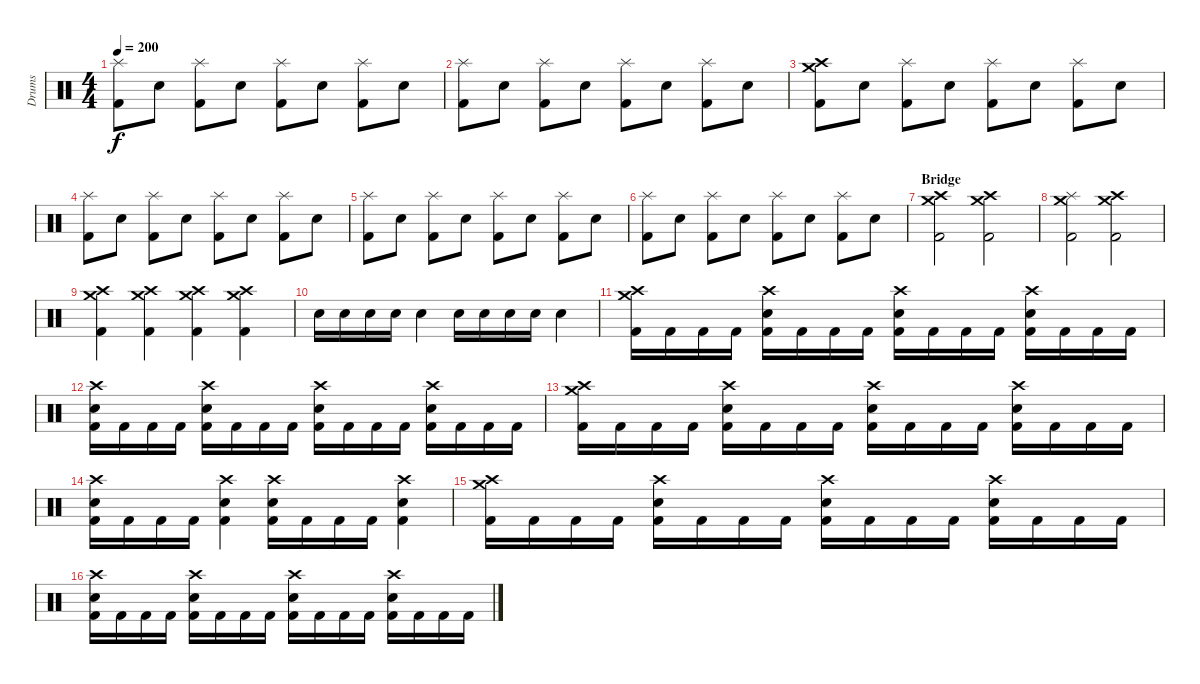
\track ("Drums" "Drums") {instrument percussion}
\staff {score}
\articulation defaults
\ts (4 4)
\tempo 200
\clef neutral
\ks c
("Splash (hit)" "Kick (hit) 2").8{dy f} "Snare (hit) 2".8 ("Splash (hit)" "Kick (hit) 2").8 "Snare (hit) 2".8 ("Splash (hit)" "Kick (hit) 2").8 "Snare (hit) 2".8 ("Splash (hit)" "Kick (hit) 2").8 "Snare (hit) 2".8 |
("Splash (hit)" "Kick (hit) 2").8 "Snare (hit) 2".8 ("Splash (hit)" "Kick (hit) 2").8 "Snare (hit) 2".8 ("Splash (hit)" "Kick (hit) 2").8 "Snare (hit) 2".8 ("Splash (hit)" "Kick (hit) 2").8 "Snare (hit) 2".8 |
("Crash medium (hit)" "Crash high (hit)" "Kick (hit) 2").8 "Snare (hit) 2".8 ("Splash (hit)" "Kick (hit) 2").8 "Snare (hit) 2".8 ("Splash (hit)" "Kick (hit) 2").8 "Snare (hit) 2".8 ("Splash (hit)" "Kick (hit) 2").8 "Snare (hit) 2".8 |
("Splash (hit)" "Kick (hit) 2").8 "Snare (hit) 2".8 ("Splash (hit)" "Kick (hit) 2").8 "Snare (hit) 2".8 ("Splash (hit)" "Kick (hit) 2").8 "Snare (hit) 2".8 ("Splash (hit)" "Kick (hit) 2").8 "Snare (hit) 2".8 |
("Splash (hit)" "Kick (hit) 2").8 "Snare (hit) 2".8 ("Splash (hit)" "Kick (hit) 2").8 "Snare (hit) 2".8 ("Splash (hit)" "Kick (hit) 2").8 "Snare (hit) 2".8 ("Splash (hit)" "Kick (hit) 2").8 "Snare (hit) 2".8 |
("Splash (hit)" "Kick (hit) 2").8 "Snare (hit) 2".8 ("Splash (hit)" "Kick (hit) 2").8 "Snare (hit) 2".8 ("Splash (hit)" "Kick (hit) 2").8 "Snare (hit) 2".8 ("Splash (hit)" "Kick (hit) 2").8 "Snare (hit) 2".8 |
\section ("" "Bridge")
("Crash high (hit)" "Crash medium (hit)" "Kick (hit) 2").2 ("Crash high (hit)" "Crash medium (hit)" "Kick (hit) 2").2 |
("Crash medium (hit)" "Splash (hit)" "Kick (hit) 2").2 ("Crash high (hit)" "Crash medium (hit)" "Kick (hit) 2").2 |
("Crash high (hit)" "Crash medium (hit)" "Kick (hit) 2").4 ("Crash high (hit)" "Crash medium (hit)" "Kick (hit) 2").4 ("Crash high (hit)" "Crash medium (hit)" "Kick (hit) 2").4 ("Crash high (hit)" "Crash medium (hit)" "Kick (hit) 2").4 |
"Snare (hit) 2".16 "Snare (hit) 2".16 "Snare (hit) 2".16 "Snare (hit) 2".16 "Snare (hit) 2".4 "Snare (hit) 2".16 "Snare (hit) 2".16 "Snare (hit) 2".16 "Snare (hit) 2".16 "Snare (hit) 2".4 |
("Crash medium (hit)" "Crash high (hit)" "Kick (hit) 2").16 "Kick (hit) 2".16 "Kick (hit) 2".16 "Kick (hit) 2".16 ("Crash high (hit)" "Snare (hit) 2" "Kick (hit) 2").16 "Kick (hit) 2".16 "Kick (hit) 2".16 "Kick (hit) 2".16 ("Crash high (hit)" "Snare (hit) 2" "Kick (hit) 2").16 "Kick (hit) 2".16 "Kick (hit) 2".16 "Kick (hit) 2".16 ("Crash high (hit)" "Snare (hit) 2" "Kick (hit) 2").16 "Kick (hit) 2".16 "Kick (hit) 2".16 "Kick (hit) 2".16 |
("Crash high (hit)" "Snare (hit) 2" "Kick (hit) 2").16 "Kick (hit) 2".16 "Kick (hit) 2".16 "Kick (hit) 2".16 ("Crash high (hit)" "Snare (hit) 2" "Kick (hit) 2").16 "Kick (hit) 2".16 "Kick (hit) 2".16 "Kick (hit) 2".16 ("Crash high (hit)" "Snare (hit) 2" "Kick (hit) 2").16 "Kick (hit) 2".16 "Kick (hit) 2".16 "Kick (hit) 2".16 ("Crash high (hit)" "Snare (hit) 2" "Kick (hit) 2").16 "Kick (hit) 2".16 "Kick (hit) 2".16 "Kick (hit) 2".16 |
("Crash medium (hit)" "Crash high (hit)" "Kick (hit) 2").16 "Kick (hit) 2".16 "Kick (hit) 2".16 "Kick (hit) 2".16 ("Crash high (hit)" "Snare (hit) 2" "Kick (hit) 2").16 "Kick (hit) 2".16 "Kick (hit) 2".16 "Kick (hit) 2".16 ("Crash high (hit)" "Snare (hit) 2" "Kick (hit) 2").16 "Kick (hit) 2".16 "Kick (hit) 2".16 "Kick (hit) 2".16 ("Crash high (hit)" "Snare (hit) 2" "Kick (hit) 2").16 "Kick (hit) 2".16 "Kick (hit) 2".16 "Kick (hit) 2".16 |
("Crash high (hit)" "Snare (hit) 2" "Kick (hit) 2").16 "Kick (hit) 2".16 "Kick (hit) 2".16 "Kick (hit) 2".16 ("Crash high (hit)" "Snare (hit) 2" "Kick (hit) 2").4 ("Crash high (hit)" "Snare (hit) 2" "Kick (hit) 2").16 "Kick (hit) 2".16 "Kick (hit) 2".16 "Kick (hit) 2".16 ("Crash high (hit)" "Snare (hit) 2" "Kick (hit) 2").4 |
("Crash medium (hit)" "Crash high (hit)" "Kick (hit) 2").16 "Kick (hit) 2".16 "Kick (hit) 2".16 "Kick (hit) 2".16 ("Crash high (hit)" "Snare (hit) 2" "Kick (hit) 2").16 "Kick (hit) 2".16 "Kick (hit) 2".16 "Kick (hit) 2".16 ("Crash high (hit)" "Snare (hit) 2" "Kick (hit) 2").16 "Kick (hit) 2".16 "Kick (hit) 2".16 "Kick (hit) 2".16 ("Crash high (hit)" "Snare (hit) 2" "Kick (hit) 2").16 "Kick (hit) 2".16 "Kick (hit) 2".16 "Kick (hit) 2".16 |
("Crash high (hit)" "Snare (hit) 2" "Kick (hit) 2").16 "Kick (hit) 2".16 "Kick (hit) 2".16 "Kick (hit) 2".16 ("Crash high (hit)" "Snare (hit) 2" "Kick (hit) 2").16 "Kick (hit) 2".16 "Kick (hit) 2".16 "Kick (hit) 2".16 ("Crash high (hit)" "Snare (hit) 2" "Kick (hit) 2").16 "Kick (hit) 2".16 "Kick (hit) 2".16 "Kick (hit) 2".16 ("Crash high (hit)" "Snare (hit) 2" "Kick (hit) 2").16 "Kick (hit) 2".16 "Kick (hit) 2".16 "Kick (hit) 2".16
